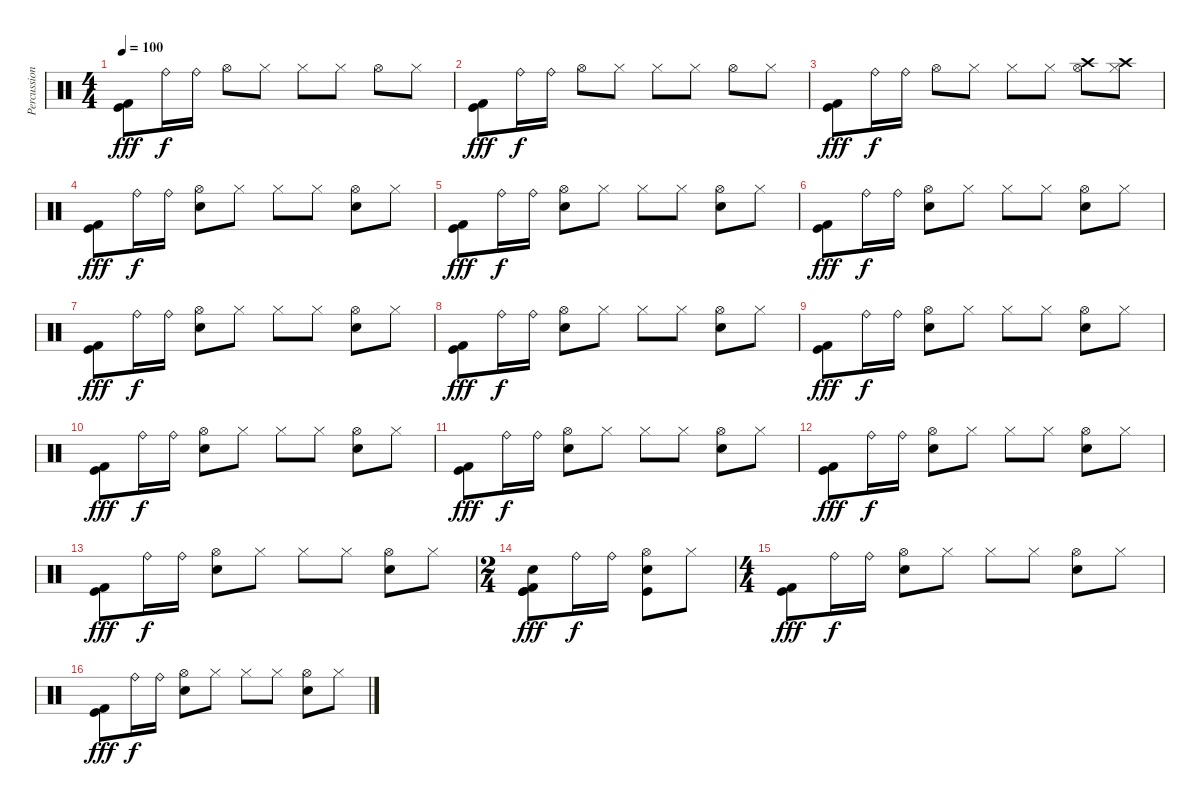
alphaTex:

\track ("Percussion" "Percussion") {instrument percussion}
\staff {score}
\articulation defaults
\ts (4 4)
\tempo 100
\clef neutral
\ks c
("Kick (hit) 2" "Kick (hit)").8{dy fff} "Ride (bell)".16{dy f} "Ride (bell)".16 "Hi-Hat (open)".8 "Hi-Hat (closed)".8 "Hi-Hat (closed)".8 "Hi-Hat (closed)".8 "Hi-Hat (open)".8 "Hi-Hat (closed)".8 |
("Kick (hit) 2" "Kick (hit)").8{dy fff} "Ride (bell)".16{dy f} "Ride (bell)".16 "Hi-Hat (open)".8 "Hi-Hat (closed)".8 "Hi-Hat (closed)".8 "Hi-Hat (closed)".8 "Hi-Hat (open)".8 "Hi-Hat (closed)".8 |
("Kick (hit) 2" "Kick (hit)").8{dy fff} "Ride (bell)".16{dy f} "Ride (bell)".16 "Hi-Hat (open)".8 "Hi-Hat (closed)".8 "Hi-Hat (closed)".8 "Hi-Hat (closed)".8 ("Crash high (hit)" "Hi-Hat (open)").8 ("Crash high (hit)" "Hi-Hat (closed)").8 |
("Kick (hit) 2" "Kick (hit)").8{dy fff} "Ride (bell)".16{dy f} "Ride (bell)".16 ("Snare (hit) 2" "Hi-Hat (open)").8 "Hi-Hat (closed)".8 "Hi-Hat (closed)".8 "Hi-Hat (closed)".8 ("Snare (hit) 2" "Hi-Hat (open)").8 "Hi-Hat (closed)".8 |
("Kick (hit) 2" "Kick (hit)").8{dy fff} "Ride (bell)".16{dy f} "Ride (bell)".16 ("Snare (hit) 2" "Hi-Hat (open)").8 "Hi-Hat (closed)".8 "Hi-Hat (closed)".8 "Hi-Hat (closed)".8 ("Snare (hit) 2" "Hi-Hat (open)").8 "Hi-Hat (closed)".8 |
("Kick (hit) 2" "Kick (hit)").8{dy fff} "Ride (bell)".16{dy f} "Ride (bell)".16 ("Snare (hit) 2" "Hi-Hat (open)").8 "Hi-Hat (closed)".8 "Hi-Hat (closed)".8 "Hi-Hat (closed)".8 ("Snare (hit) 2" "Hi-Hat (open)").8 "Hi-Hat (closed)".8 |
("Kick (hit) 2" "Kick (hit)").8{dy fff} "Ride (bell)".16{dy f} "Ride (bell)".16 ("Snare (hit) 2" "Hi-Hat (open)").8 "Hi-Hat (closed)".8 "Hi-Hat (closed)".8 "Hi-Hat (closed)".8 ("Snare (hit) 2" "Hi-Hat (open)").8 "Hi-Hat (closed)".8 |
("Kick (hit) 2" "Kick (hit)").8{dy fff} "Ride (bell)".16{dy f} "Ride (bell)".16 ("Snare (hit) 2" "Hi-Hat (open)").8 "Hi-Hat (closed)".8 "Hi-Hat (closed)".8 "Hi-Hat (closed)".8 ("Snare (hit) 2" "Hi-Hat (open)").8 "Hi-Hat (closed)".8 |
("Kick (hit) 2" "Kick (hit)").8{dy fff} "Ride (bell)".16{dy f} "Ride (bell)".16 ("Snare (hit) 2" "Hi-Hat (open)").8 "Hi-Hat (closed)".8 "Hi-Hat (closed)".8 "Hi-Hat (closed)".8 ("Snare (hit) 2" "Hi-Hat (open)").8 "Hi-Hat (closed)".8 |
("Kick (hit) 2" "Kick (hit)").8{dy fff} "Ride (bell)".16{dy f} "Ride (bell)".16 ("Snare (hit) 2" "Hi-Hat (open)").8 "Hi-Hat (closed)".8 "Hi-Hat (closed)".8 "Hi-Hat (closed)".8 ("Snare (hit) 2" "Hi-Hat (open)").8 "Hi-Hat (closed)".8 |
("Kick (hit) 2" "Kick (hit)").8{dy fff} "Ride (bell)".16{dy f} "Ride (bell)".16 ("Snare (hit) 2" "Hi-Hat (open)").8 "Hi-Hat (closed)".8 "Hi-Hat (closed)".8 "Hi-Hat (closed)".8 ("Snare (hit) 2" "Hi-Hat (open)").8 "Hi-Hat (closed)".8 |
("Kick (hit) 2" "Kick (hit)").8{dy fff} "Ride (bell)".16{dy f} "Ride (bell)".16 ("Snare (hit) 2" "Hi-Hat (open)").8 "Hi-Hat (closed)".8 "Hi-Hat (closed)".8 "Hi-Hat (closed)".8 ("Snare (hit) 2" "Hi-Hat (open)").8 "Hi-Hat (closed)".8 |
("Kick (hit) 2" "Kick (hit)").8{dy fff} "Ride (bell)".16{dy f} "Ride (bell)".16 ("Snare (hit) 2" "Hi-Hat (open)").8 "Hi-Hat (closed)".8 "Hi-Hat (closed)".8 "Hi-Hat (closed)".8 ("Snare (hit) 2" "Hi-Hat (open)").8 "Hi-Hat (closed)".8 |
\ts (2 4)
("Kick (hit)" "Snare (hit) 2" "Kick (hit) 2" "Kick (hit)").8{dy fff} "Ride (bell)".16{dy f} "Ride (bell)".16 ("Kick (hit)" "Snare (hit) 2" "Hi-Hat (open)").8 "Hi-Hat (closed)".8 |
\ts (4 4)
("Kick (hit) 2" "Kick (hit)").8{dy fff} "Ride (bell)".16{dy f} "Ride (bell)".16 ("Snare (hit) 2" "Hi-Hat (open)").8 "Hi-Hat (closed)".8 "Hi-Hat (closed)".8 "Hi-Hat (closed)".8 ("Snare (hit) 2" "Hi-Hat (open)").8 "Hi-Hat (closed)".8 |
("Kick (hit) 2" "Kick (hit)").8{dy fff} "Ride (bell)".16{dy f} "Ride (bell)".16 ("Snare (hit) 2" "Hi-Hat (open)").8 "Hi-Hat (closed)".8 "Hi-Hat (closed)".8 "Hi-Hat (closed)".8 ("Snare (hit) 2" "Hi-Hat (open)").8 "Hi-Hat (closed)".8
